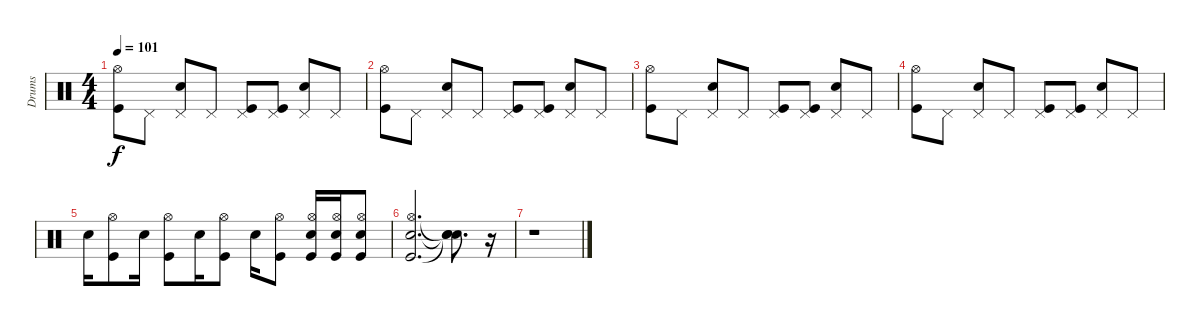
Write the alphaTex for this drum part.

\track ("Drums" "Drums") {instrument percussion}
\staff {score}
\articulation defaults
\ts (4 4)
\tempo 101
\clef neutral
\ks c
("Kick (hit)" "Hi-Hat (open)").8{dy f} "Pedal Hi-Hat (hit)".8 ("Electric Snare (hit)" "Pedal Hi-Hat (hit)").8 "Pedal Hi-Hat (hit)".8 ("Kick (hit)" "Pedal Hi-Hat (hit)").8 ("Kick (hit)" "Pedal Hi-Hat (hit)").8 ("Electric Snare (hit)" "Pedal Hi-Hat (hit)").8 "Pedal Hi-Hat (hit)".8 |
("Kick (hit)" "Hi-Hat (open)").8 "Pedal Hi-Hat (hit)".8 ("Electric Snare (hit)" "Pedal Hi-Hat (hit)").8 "Pedal Hi-Hat (hit)".8 ("Kick (hit)" "Pedal Hi-Hat (hit)").8 ("Kick (hit)" "Pedal Hi-Hat (hit)").8 ("Electric Snare (hit)" "Pedal Hi-Hat (hit)").8 "Pedal Hi-Hat (hit)".8 |
("Kick (hit)" "Hi-Hat (open)").8 "Pedal Hi-Hat (hit)".8 ("Electric Snare (hit)" "Pedal Hi-Hat (hit)").8 "Pedal Hi-Hat (hit)".8 ("Kick (hit)" "Pedal Hi-Hat (hit)").8 ("Kick (hit)" "Pedal Hi-Hat (hit)").8 ("Electric Snare (hit)" "Pedal Hi-Hat (hit)").8 "Pedal Hi-Hat (hit)".8 |
("Kick (hit)" "Hi-Hat (open)").8 "Pedal Hi-Hat (hit)".8 ("Electric Snare (hit)" "Pedal Hi-Hat (hit)").8 "Pedal Hi-Hat (hit)".8 ("Kick (hit)" "Pedal Hi-Hat (hit)").8 ("Kick (hit)" "Pedal Hi-Hat (hit)").8 ("Electric Snare (hit)" "Pedal Hi-Hat (hit)").8 "Pedal Hi-Hat (hit)".8 |
"Electric Snare (hit)".16 ("Kick (hit)" "Hi-Hat (open)").8 "Electric Snare (hit)".16 ("Kick (hit)" "Hi-Hat (open)").8 "Electric Snare (hit)".16 ("Kick (hit)" "Hi-Hat (open)").8 "Electric Snare (hit)".16 ("Kick (hit)" "Hi-Hat (open)").8 ("Kick (hit)" "Electric Snare (hit)" "Hi-Hat (open)").16 ("Kick (hit)" "Electric Snare (hit)" "Hi-Hat (open)").16 ("Kick (hit)" "Electric Snare (hit)" "Hi-Hat (open)").8 |
("Kick (hit)" "Electric Snare (hit)" "Hi-Hat (open)").2{d} ("Snare (hit)"{t} "Snare (hit)"{t} "Snare (hit)"{t}).8{d} r.16 |
r.1
